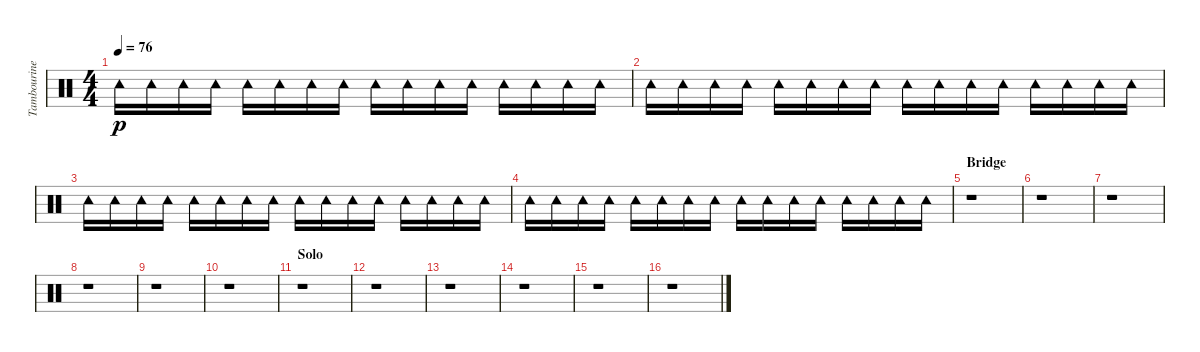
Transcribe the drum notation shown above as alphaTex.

\track ("Tambourine" "Tambourine") {instrument percussion}
\staff {score}
\articulation defaults
\ts (4 4)
\tempo 76
\clef neutral
\ks c "Tambourine (hit)".16{dy p} "Tambourine (hit)".16 "Tambourine (hit)".16 "Tambourine (hit)".16 "Tambourine (hit)".16 "Tambourine (hit)".16 "Tambourine (hit)".16 "Tambourine (hit)".16 "Tambourine (hit)".16 "Tambourine (hit)".16 "Tambourine (hit)".16 "Tambourine (hit)".16 "Tambourine (hit)".16 "Tambourine (hit)".16 "Tambourine (hit)".16 "Tambourine (hit)".16
|
"Tambourine (hit)".16 "Tambourine (hit)".16 "Tambourine (hit)".16 "Tambourine (hit)".16 "Tambourine (hit)".16 "Tambourine (hit)".16 "Tambourine (hit)".16 "Tambourine (hit)".16 "Tambourine (hit)".16 "Tambourine (hit)".16 "Tambourine (hit)".16 "Tambourine (hit)".16 "Tambourine (hit)".16 "Tambourine (hit)".16 "Tambourine (hit)".16 "Tambourine (hit)".16 |
"Tambourine (hit)".16 "Tambourine (hit)".16 "Tambourine (hit)".16 "Tambourine (hit)".16 "Tambourine (hit)".16 "Tambourine (hit)".16 "Tambourine (hit)".16 "Tambourine (hit)".16 "Tambourine (hit)".16 "Tambourine (hit)".16 "Tambourine (hit)".16 "Tambourine (hit)".16 "Tambourine (hit)".16 "Tambourine (hit)".16 "Tambourine (hit)".16 "Tambourine (hit)".16 |
"Tambourine (hit)".16 "Tambourine (hit)".16 "Tambourine (hit)".16 "Tambourine (hit)".16 "Tambourine (hit)".16 "Tambourine (hit)".16 "Tambourine (hit)".16 "Tambourine (hit)".16 "Tambourine (hit)".16 "Tambourine (hit)".16 "Tambourine (hit)".16 "Tambourine (hit)".16 "Tambourine (hit)".16 "Tambourine (hit)".16 "Tambourine (hit)".16 "Tambourine (hit)".16 |
\section ("" "Bridge")
r.1 |
r.1 |
r.1 |
r.1 |
r.1 |
r.1 |
\section ("" "Solo")
r.1 |
r.1 |
r.1 |
r.1 |
r.1 |
r.1
